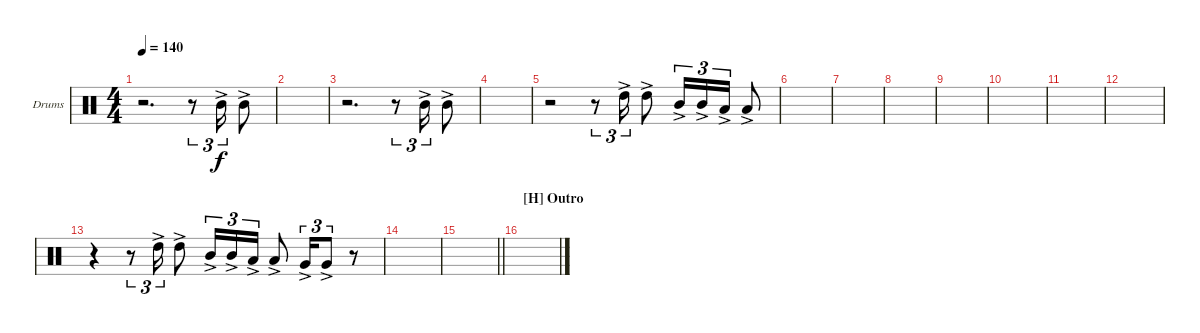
\bracketExtendMode groupsimilarinstruments
\firstSystemTrackNameOrientation horizontal
\otherSystemsTrackNameOrientation horizontal
\track ("Drumkit" "Drums") {instrument percussion}
\staff {score}
\articulation defaults
\ts (4 4)
\tempo 140
\clef neutral
\ks c
r.2{d dy f} r.8{tu (3 2)} "Mid Tom (hit)"{ac}.16{tu (3 2)} "Mid Tom (hit)"{ac}.8 |
|
r.2{d} r.8{tu (3 2)} "Mid Tom (hit)"{ac}.16{tu (3 2)} "Mid Tom (hit)"{ac}.8 |
|
r.2 r.8{tu (3 2)} "High Tom (hit)"{ac}.16{tu (3 2)} "High Tom (hit)"{ac}.8 "Mid Tom (hit)"{ac}.16{tu (3 2)} "Mid Tom (hit)"{ac}.16{tu (3 2)} "Low Tom (hit)"{ac}.16{tu (3 2)} "Low Tom (hit)"{ac}.8 |
|
|
|
|
|
|
|
r.4 r.8{tu (3 2)} "High Tom (hit)"{ac}.16{tu (3 2)} "High Tom (hit)"{ac}.8 "Mid Tom (hit)"{ac}.16{tu (3 2)} "Mid Tom (hit)"{ac}.16{tu (3 2)} "Low Tom (hit)"{ac}.16{tu (3 2)} "Low Tom (hit)"{ac}.8 "Very Low Tom (hit)"{ac}.16{tu (3 2)} "Very Low Tom (hit)"{ac}.8{tu (3 2)} r.8 |
|
\barLineRight lightlight
|
\section ("H" "Outro")
